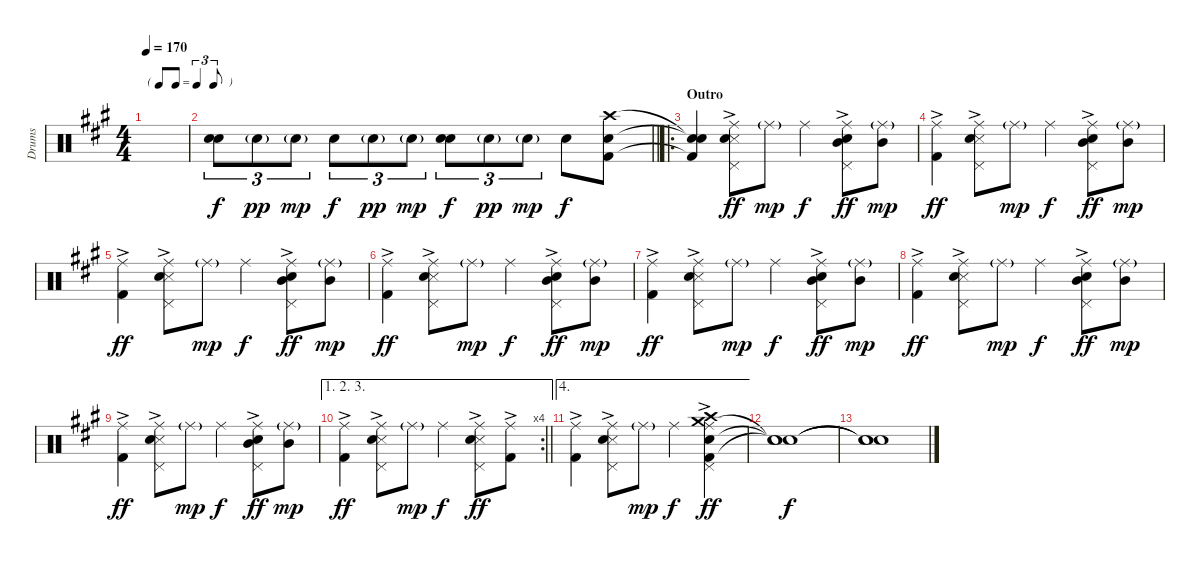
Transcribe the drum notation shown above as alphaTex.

\track ("Drums" "Drums") {instrument percussion}
\staff {score}
\articulation defaults
\ts (4 4)
\tf triplet8th
\tempo 170
\clef neutral
\ks a
|
\barLineRight lightlight
("Electric Snare (hit)" "Snare (hit) 2").8{tu (3 2) dy f} "Snare (hit) 2"{g}.8{tu (3 2) dy pp} "Snare (hit) 2"{g}.8{tu (3 2) dy mp} "Snare (hit) 2".8{tu (3 2) dy f} "Snare (hit) 2"{g}.8{tu (3 2) dy pp} "Snare (hit) 2"{g}.8{tu (3 2) dy mp} ("Electric Snare (hit)" "Snare (hit) 2").8{tu (3 2) dy f} "Snare (hit) 2"{g}.8{tu (3 2) dy pp} "Snare (hit) 2"{g}.8{tu (3 2) dy mp} "Snare (hit) 2".8{dy f} ("Kick (hit) 2" "Snare (hit) 2" "Crash high (hit)").8 |
\ro
\section ("" "Outro")
("Kick (hit) 2"{t} "Snare (hit)"{t} "Snare (hit)"{t}).4 ("Snare (side stick) 3"{ac} "Hand Clap (hit)"{ac} "Pedal Hi-Hat (hit)" "Ride (middle)").8{dy ff} "Ride (middle)"{g}.8{dy mp} "Ride (middle)".4{dy f} ("Mid Tom (hit)" "Hand Clap (hit)"{ac} "Pedal Hi-Hat (hit)" "Ride (middle)").8{dy ff} ("Mid Tom (hit)" "Ride (middle)"{g}).8{dy mp} |
("Kick (hit) 2"{ac} "Ride (middle)").4{dy ff} ("Snare (side stick) 3"{ac} "Hand Clap (hit)"{ac} "Pedal Hi-Hat (hit)" "Ride (middle)").8 "Ride (middle)"{g}.8{dy mp} "Ride (middle)".4{dy f} ("Mid Tom (hit)" "Hand Clap (hit)"{ac} "Pedal Hi-Hat (hit)" "Ride (middle)").8{dy ff} ("Mid Tom (hit)" "Ride (middle)"{g}).8{dy mp} |
("Kick (hit) 2"{ac} "Ride (middle)").4{dy ff} ("Snare (side stick) 3"{ac} "Hand Clap (hit)"{ac} "Pedal Hi-Hat (hit)" "Ride (middle)").8 "Ride (middle)"{g}.8{dy mp} "Ride (middle)".4{dy f} ("Mid Tom (hit)" "Hand Clap (hit)"{ac} "Pedal Hi-Hat (hit)" "Ride (middle)").8{dy ff} ("Mid Tom (hit)" "Ride (middle)"{g}).8{dy mp} |
("Kick (hit) 2"{ac} "Ride (middle)").4{dy ff} ("Snare (side stick) 3"{ac} "Hand Clap (hit)"{ac} "Pedal Hi-Hat (hit)" "Ride (middle)").8 "Ride (middle)"{g}.8{dy mp} "Ride (middle)".4{dy f} ("Mid Tom (hit)" "Hand Clap (hit)"{ac} "Pedal Hi-Hat (hit)" "Ride (middle)").8{dy ff} ("Mid Tom (hit)" "Ride (middle)"{g}).8{dy mp} |
("Kick (hit) 2"{ac} "Ride (middle)").4{dy ff} ("Snare (side stick) 3"{ac} "Hand Clap (hit)"{ac} "Pedal Hi-Hat (hit)" "Ride (middle)").8 "Ride (middle)"{g}.8{dy mp} "Ride (middle)".4{dy f} ("Mid Tom (hit)" "Hand Clap (hit)"{ac} "Pedal Hi-Hat (hit)" "Ride (middle)").8{dy ff} ("Mid Tom (hit)" "Ride (middle)"{g}).8{dy mp} |
("Kick (hit) 2"{ac} "Ride (middle)").4{dy ff} ("Snare (side stick) 3"{ac} "Hand Clap (hit)"{ac} "Pedal Hi-Hat (hit)" "Ride (middle)").8 "Ride (middle)"{g}.8{dy mp} "Ride (middle)".4{dy f} ("Mid Tom (hit)" "Hand Clap (hit)"{ac} "Pedal Hi-Hat (hit)" "Ride (middle)").8{dy ff} ("Mid Tom (hit)" "Ride (middle)"{g}).8{dy mp} |
("Kick (hit) 2"{ac} "Ride (middle)").4{dy ff} ("Snare (side stick) 3"{ac} "Hand Clap (hit)"{ac} "Pedal Hi-Hat (hit)" "Ride (middle)").8 "Ride (middle)"{g}.8{dy mp} "Ride (middle)".4{dy f} ("Mid Tom (hit)" "Hand Clap (hit)"{ac} "Pedal Hi-Hat (hit)" "Ride (middle)").8{dy ff} ("Mid Tom (hit)" "Ride (middle)"{g}).8{dy mp} |
\ae (1 2 3)
\rc 4
\barLineRight lightlight
("Kick (hit) 2"{ac} "Ride (middle)").4{dy ff} ("Snare (side stick) 3"{ac} "Hand Clap (hit)"{ac} "Pedal Hi-Hat (hit)" "Ride (middle)").8 "Ride (middle)"{g}.8{dy mp} "Ride (middle)".4{dy f} ("Snare (side stick) 3" "Hand Clap (hit)"{ac} "Pedal Hi-Hat (hit)" "Ride (middle)").8{dy ff} ("Kick (hit) 2"{ac} "Ride (middle)").8 |
\ae 4
("Kick (hit) 2"{ac} "Ride (middle)").4 ("Snare (side stick) 3"{ac} "Hand Clap (hit)"{ac} "Pedal Hi-Hat (hit)" "Ride (middle)").8 "Ride (middle)"{g}.8{dy mp} "Ride (middle)".4{dy f} ("Kick (hit) 2"{ac} "Snare (hit) 2" "Crash medium (hit)" "Crash high (hit)" "Pedal Hi-Hat (hit)" "Ride (middle)").4{dy ff} |
("Snare (hit)"{t} "Snare (hit)"{t} "Snare (hit)"{t}).1{dy f} |
("Snare (hit)"{t} "Snare (hit)"{t} "Snare (hit)"{t}).1
